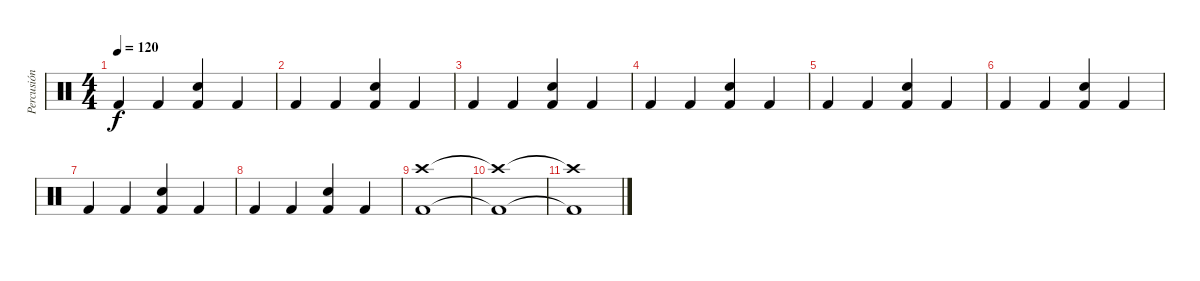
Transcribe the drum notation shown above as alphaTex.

\track ("Percusión" "Percusión") {instrument percussion}
\staff {score}
\articulation defaults
\ts (4 4)
\tempo 120
\clef neutral
\ks c "Kick (hit) 2".4{dy f} "Kick (hit) 2".4
("Kick (hit) 2" "Snare (hit) 2").4 "Kick (hit) 2".4 |
"Kick (hit) 2".4 "Kick (hit) 2".4 ("Kick (hit) 2" "Snare (hit) 2").4 "Kick (hit) 2".4 |
"Kick (hit) 2".4 "Kick (hit) 2".4 ("Kick (hit) 2" "Snare (hit) 2").4 "Kick (hit) 2".4 |
"Kick (hit) 2".4 "Kick (hit) 2".4 ("Kick (hit) 2" "Snare (hit) 2").4 "Kick (hit) 2".4 |
"Kick (hit) 2".4 "Kick (hit) 2".4 ("Kick (hit) 2" "Snare (hit) 2").4 "Kick (hit) 2".4 |
"Kick (hit) 2".4 "Kick (hit) 2".4 ("Kick (hit) 2" "Snare (hit) 2").4 "Kick (hit) 2".4 |
"Kick (hit) 2".4 "Kick (hit) 2".4 ("Kick (hit) 2" "Snare (hit) 2").4 "Kick (hit) 2".4 |
"Kick (hit) 2".4 "Kick (hit) 2".4 ("Kick (hit) 2" "Snare (hit) 2").4 "Kick (hit) 2".4 |
("Kick (hit) 2" "Crash high (hit)").1 |
("Kick (hit) 2"{t} "Crash high (hit)"{t}).1 |
("Kick (hit) 2"{t} "Crash high (hit)"{t}).1
